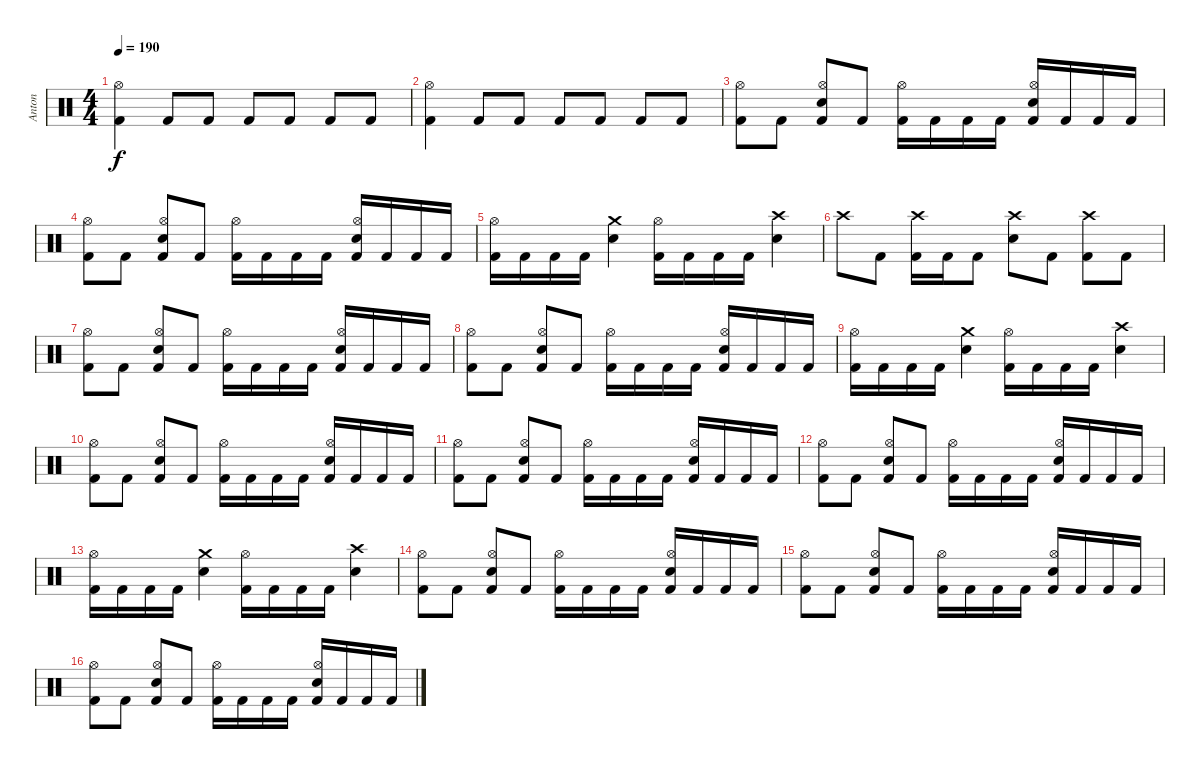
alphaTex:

\track ("Anton" "Anton") {instrument percussion}
\staff {score}
\articulation defaults
\ts (4 4)
\tempo 190
\clef neutral
\ks c
("Kick (hit) 2" "Hi-Hat (open)").4{dy f} "Kick (hit) 2".8 "Kick (hit) 2".8 "Kick (hit) 2".8 "Kick (hit) 2".8 "Kick (hit) 2".8 "Kick (hit) 2".8 |
("Kick (hit) 2" "Hi-Hat (open)").4 "Kick (hit) 2".8 "Kick (hit) 2".8 "Kick (hit) 2".8 "Kick (hit) 2".8 "Kick (hit) 2".8 "Kick (hit) 2".8 |
("Hi-Hat (open)" "Kick (hit) 2").8 "Kick (hit) 2".8 ("Hi-Hat (open)" "Electric Snare (hit)" "Kick (hit) 2").8 "Kick (hit) 2".8 ("Hi-Hat (open)" "Kick (hit) 2").16 "Kick (hit) 2".16 "Kick (hit) 2".16 "Kick (hit) 2".16 ("Hi-Hat (open)" "Electric Snare (hit)" "Kick (hit) 2").16 "Kick (hit) 2".16 "Kick (hit) 2".16 "Kick (hit) 2".16 |
("Hi-Hat (open)" "Kick (hit) 2").8 "Kick (hit) 2".8 ("Hi-Hat (open)" "Electric Snare (hit)" "Kick (hit) 2").8 "Kick (hit) 2".8 ("Hi-Hat (open)" "Kick (hit) 2").16 "Kick (hit) 2".16 "Kick (hit) 2".16 "Kick (hit) 2".16 ("Hi-Hat (open)" "Electric Snare (hit)" "Kick (hit) 2").16 "Kick (hit) 2".16 "Kick (hit) 2".16 "Kick (hit) 2".16 |
("Hi-Hat (open)" "Kick (hit) 2").16 "Kick (hit) 2".16 "Kick (hit) 2".16 "Kick (hit) 2".16 ("Crash medium (hit)" "Electric Snare (hit)").4 ("Hi-Hat (open)" "Kick (hit) 2").16 "Kick (hit) 2".16 "Kick (hit) 2".16 "Kick (hit) 2".16 ("Crash high (hit)" "Electric Snare (hit)").4 |
"Crash high (hit)".8 "Kick (hit) 2".8 ("Crash high (hit)" "Kick (hit) 2").16 "Kick (hit) 2".16 "Kick (hit) 2".8 ("Crash high (hit)" "Electric Snare (hit)").8 "Kick (hit) 2".8 ("Crash high (hit)" "Kick (hit) 2").8 "Kick (hit) 2".8 |
("Hi-Hat (open)" "Kick (hit) 2").8 "Kick (hit) 2".8 ("Hi-Hat (open)" "Electric Snare (hit)" "Kick (hit) 2").8 "Kick (hit) 2".8 ("Hi-Hat (open)" "Kick (hit) 2").16 "Kick (hit) 2".16 "Kick (hit) 2".16 "Kick (hit) 2".16 ("Hi-Hat (open)" "Electric Snare (hit)" "Kick (hit) 2").16 "Kick (hit) 2".16 "Kick (hit) 2".16 "Kick (hit) 2".16 |
("Hi-Hat (open)" "Kick (hit) 2").8 "Kick (hit) 2".8 ("Hi-Hat (open)" "Electric Snare (hit)" "Kick (hit) 2").8 "Kick (hit) 2".8 ("Hi-Hat (open)" "Kick (hit) 2").16 "Kick (hit) 2".16 "Kick (hit) 2".16 "Kick (hit) 2".16 ("Hi-Hat (open)" "Electric Snare (hit)" "Kick (hit) 2").16 "Kick (hit) 2".16 "Kick (hit) 2".16 "Kick (hit) 2".16 |
("Hi-Hat (open)" "Kick (hit) 2").16 "Kick (hit) 2".16 "Kick (hit) 2".16 "Kick (hit) 2".16 ("Crash medium (hit)" "Electric Snare (hit)").4 ("Hi-Hat (open)" "Kick (hit) 2").16 "Kick (hit) 2".16 "Kick (hit) 2".16 "Kick (hit) 2".16 ("Crash high (hit)" "Electric Snare (hit)").4 |
("Hi-Hat (open)" "Kick (hit) 2").8 "Kick (hit) 2".8 ("Hi-Hat (open)" "Electric Snare (hit)" "Kick (hit) 2").8 "Kick (hit) 2".8 ("Hi-Hat (open)" "Kick (hit) 2").16 "Kick (hit) 2".16 "Kick (hit) 2".16 "Kick (hit) 2".16 ("Hi-Hat (open)" "Electric Snare (hit)" "Kick (hit) 2").16 "Kick (hit) 2".16 "Kick (hit) 2".16 "Kick (hit) 2".16 |
("Hi-Hat (open)" "Kick (hit) 2").8 "Kick (hit) 2".8 ("Hi-Hat (open)" "Electric Snare (hit)" "Kick (hit) 2").8 "Kick (hit) 2".8 ("Hi-Hat (open)" "Kick (hit) 2").16 "Kick (hit) 2".16 "Kick (hit) 2".16 "Kick (hit) 2".16 ("Hi-Hat (open)" "Electric Snare (hit)" "Kick (hit) 2").16 "Kick (hit) 2".16 "Kick (hit) 2".16 "Kick (hit) 2".16 |
("Hi-Hat (open)" "Kick (hit) 2").8 "Kick (hit) 2".8 ("Hi-Hat (open)" "Electric Snare (hit)" "Kick (hit) 2").8 "Kick (hit) 2".8 ("Hi-Hat (open)" "Kick (hit) 2").16 "Kick (hit) 2".16 "Kick (hit) 2".16 "Kick (hit) 2".16 ("Hi-Hat (open)" "Electric Snare (hit)" "Kick (hit) 2").16 "Kick (hit) 2".16 "Kick (hit) 2".16 "Kick (hit) 2".16 |
("Hi-Hat (open)" "Kick (hit) 2").16 "Kick (hit) 2".16 "Kick (hit) 2".16 "Kick (hit) 2".16 ("Crash medium (hit)" "Electric Snare (hit)").4 ("Hi-Hat (open)" "Kick (hit) 2").16 "Kick (hit) 2".16 "Kick (hit) 2".16 "Kick (hit) 2".16 ("Crash high (hit)" "Electric Snare (hit)").4 |
("Hi-Hat (open)" "Kick (hit) 2").8 "Kick (hit) 2".8 ("Hi-Hat (open)" "Electric Snare (hit)" "Kick (hit) 2").8 "Kick (hit) 2".8 ("Hi-Hat (open)" "Kick (hit) 2").16 "Kick (hit) 2".16 "Kick (hit) 2".16 "Kick (hit) 2".16 ("Hi-Hat (open)" "Electric Snare (hit)" "Kick (hit) 2").16 "Kick (hit) 2".16 "Kick (hit) 2".16 "Kick (hit) 2".16 |
("Hi-Hat (open)" "Kick (hit) 2").8 "Kick (hit) 2".8 ("Hi-Hat (open)" "Electric Snare (hit)" "Kick (hit) 2").8 "Kick (hit) 2".8 ("Hi-Hat (open)" "Kick (hit) 2").16 "Kick (hit) 2".16 "Kick (hit) 2".16 "Kick (hit) 2".16 ("Hi-Hat (open)" "Electric Snare (hit)" "Kick (hit) 2").16 "Kick (hit) 2".16 "Kick (hit) 2".16 "Kick (hit) 2".16 |
("Hi-Hat (open)" "Kick (hit) 2").8 "Kick (hit) 2".8 ("Hi-Hat (open)" "Electric Snare (hit)" "Kick (hit) 2").8 "Kick (hit) 2".8 ("Hi-Hat (open)" "Kick (hit) 2").16 "Kick (hit) 2".16 "Kick (hit) 2".16 "Kick (hit) 2".16 ("Hi-Hat (open)" "Electric Snare (hit)" "Kick (hit) 2").16 "Kick (hit) 2".16 "Kick (hit) 2".16 "Kick (hit) 2".16
